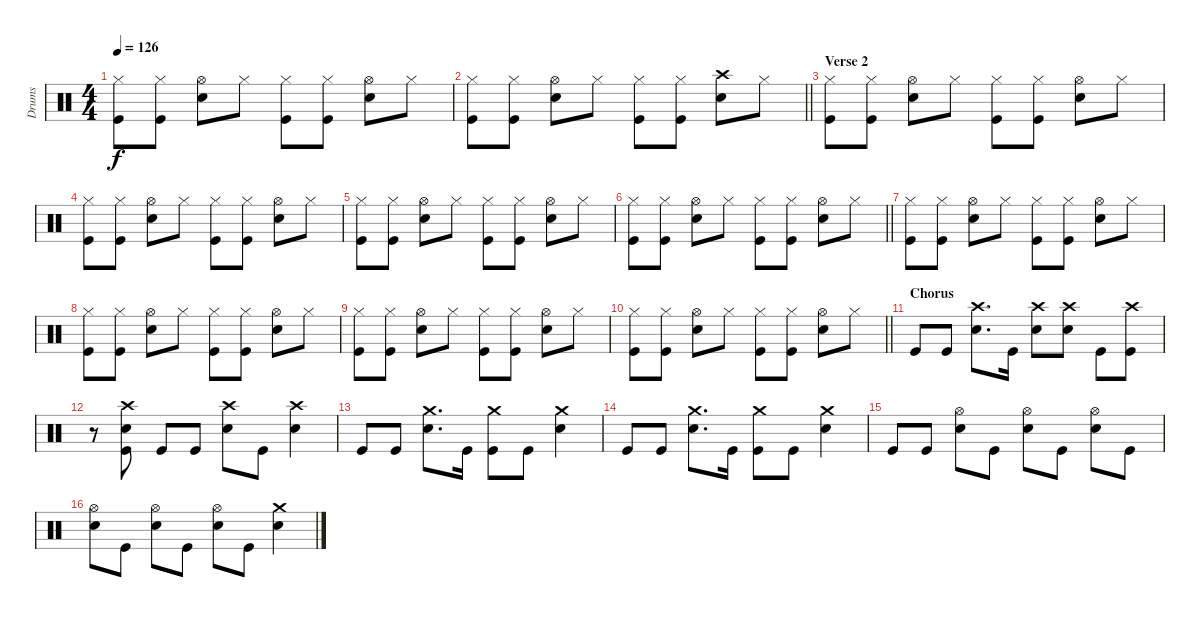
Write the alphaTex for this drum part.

\track ("Drums" "Drums") {instrument percussion}
\staff {score}
\articulation defaults
\ts (4 4)
\tempo 126
\clef neutral
\ks c
("Hi-Hat (closed)" "Kick (hit)").8{dy f} ("Hi-Hat (closed)" "Kick (hit)").8 ("Hi-Hat (open)" "Snare (hit) 2").8 "Hi-Hat (closed)".8 ("Hi-Hat (closed)" "Kick (hit)").8 ("Hi-Hat (closed)" "Kick (hit)").8 ("Hi-Hat (open)" "Snare (hit) 2").8 "Hi-Hat (closed)".8 |
\barLineRight lightlight
("Hi-Hat (closed)" "Kick (hit)").8 ("Hi-Hat (closed)" "Kick (hit)").8 ("Hi-Hat (open)" "Snare (hit) 2").8 "Hi-Hat (closed)".8 ("Hi-Hat (closed)" "Kick (hit)").8 ("Hi-Hat (closed)" "Kick (hit)").8 ("Crash high (hit)" "Snare (hit) 2").8 "Hi-Hat (closed)".8 |
\section ("" "Verse 2")
("Hi-Hat (closed)" "Kick (hit)").8 ("Hi-Hat (closed)" "Kick (hit)").8 ("Hi-Hat (open)" "Snare (hit) 2").8 "Hi-Hat (closed)".8 ("Hi-Hat (closed)" "Kick (hit)").8 ("Hi-Hat (closed)" "Kick (hit)").8 ("Hi-Hat (open)" "Snare (hit) 2").8 "Hi-Hat (closed)".8 |
("Hi-Hat (closed)" "Kick (hit)").8 ("Hi-Hat (closed)" "Kick (hit)").8 ("Hi-Hat (open)" "Snare (hit) 2").8 "Hi-Hat (closed)".8 ("Hi-Hat (closed)" "Kick (hit)").8 ("Hi-Hat (closed)" "Kick (hit)").8 ("Hi-Hat (open)" "Snare (hit) 2").8 "Hi-Hat (closed)".8 |
("Hi-Hat (closed)" "Kick (hit)").8 ("Hi-Hat (closed)" "Kick (hit)").8 ("Hi-Hat (open)" "Snare (hit) 2").8 "Hi-Hat (closed)".8 ("Hi-Hat (closed)" "Kick (hit)").8 ("Hi-Hat (closed)" "Kick (hit)").8 ("Hi-Hat (open)" "Snare (hit) 2").8 "Hi-Hat (closed)".8 |
\barLineRight lightlight
("Hi-Hat (closed)" "Kick (hit)").8 ("Hi-Hat (closed)" "Kick (hit)").8 ("Hi-Hat (open)" "Snare (hit) 2").8 "Hi-Hat (closed)".8 ("Hi-Hat (closed)" "Kick (hit)").8 ("Hi-Hat (closed)" "Kick (hit)").8 ("Hi-Hat (open)" "Snare (hit) 2").8 "Hi-Hat (closed)".8 |
("Hi-Hat (closed)" "Kick (hit)").8 ("Hi-Hat (closed)" "Kick (hit)").8 ("Hi-Hat (open)" "Snare (hit) 2").8 "Hi-Hat (closed)".8 ("Hi-Hat (closed)" "Kick (hit)").8 ("Hi-Hat (closed)" "Kick (hit)").8 ("Hi-Hat (open)" "Snare (hit) 2").8 "Hi-Hat (closed)".8 |
("Hi-Hat (closed)" "Kick (hit)").8 ("Hi-Hat (closed)" "Kick (hit)").8 ("Hi-Hat (open)" "Snare (hit) 2").8 "Hi-Hat (closed)".8 ("Hi-Hat (closed)" "Kick (hit)").8 ("Hi-Hat (closed)" "Kick (hit)").8 ("Hi-Hat (open)" "Snare (hit) 2").8 "Hi-Hat (closed)".8 |
("Hi-Hat (closed)" "Kick (hit)").8 ("Hi-Hat (closed)" "Kick (hit)").8 ("Hi-Hat (open)" "Snare (hit) 2").8 "Hi-Hat (closed)".8 ("Hi-Hat (closed)" "Kick (hit)").8 ("Hi-Hat (closed)" "Kick (hit)").8 ("Hi-Hat (open)" "Snare (hit) 2").8 "Hi-Hat (closed)".8 |
\barLineRight lightlight
("Hi-Hat (closed)" "Kick (hit)").8 ("Hi-Hat (closed)" "Kick (hit)").8 ("Hi-Hat (open)" "Snare (hit) 2").8 "Hi-Hat (closed)".8 ("Hi-Hat (closed)" "Kick (hit)").8 ("Hi-Hat (closed)" "Kick (hit)").8 ("Hi-Hat (open)" "Snare (hit) 2").8 "Hi-Hat (closed)".8 |
\section ("" "Chorus")
"Kick (hit)".8 "Kick (hit)".8 ("Crash high (hit)" "Snare (hit) 2").8{d} "Kick (hit)".16 ("Crash high (hit)" "Snare (hit) 2").8 ("Crash high (hit)" "Snare (hit) 2").8 "Kick (hit)".8 ("Crash high (hit)" "Kick (hit)").8 |
r.8 ("Crash high (hit)" "Snare (hit) 2" "Kick (hit)").8 "Kick (hit)".8 "Kick (hit)".8 ("Crash high (hit)" "Snare (hit) 2").8 "Kick (hit)".8 ("Crash high (hit)" "Snare (hit) 2").4 |
"Kick (hit)".8 "Kick (hit)".8 ("Crash medium (hit)" "Snare (hit) 2").8{d} "Kick (hit)".16 ("Crash medium (hit)" "Kick (hit)").8 "Kick (hit)".8 ("Crash medium (hit)" "Snare (hit) 2").4 |
"Kick (hit)".8 "Kick (hit)".8 ("Crash medium (hit)" "Snare (hit) 2").8{d} "Kick (hit)".16 ("Crash medium (hit)" "Kick (hit)").8 "Kick (hit)".8 ("Crash medium (hit)" "Snare (hit) 2").4 |
"Kick (hit)".8 "Kick (hit)".8 ("Hi-Hat (open)" "Snare (hit) 2").8 "Kick (hit)".8 ("Hi-Hat (open)" "Snare (hit) 2").8 "Kick (hit)".8 ("Hi-Hat (open)" "Snare (hit) 2").8 "Kick (hit)".8 |
("Hi-Hat (open)" "Snare (hit) 2").8 "Kick (hit)".8 ("Hi-Hat (open)" "Snare (hit) 2").8 "Kick (hit)".8 ("Hi-Hat (open)" "Snare (hit) 2").8 "Kick (hit)".8 ("Crash medium (hit)" "Snare (hit) 2").4
